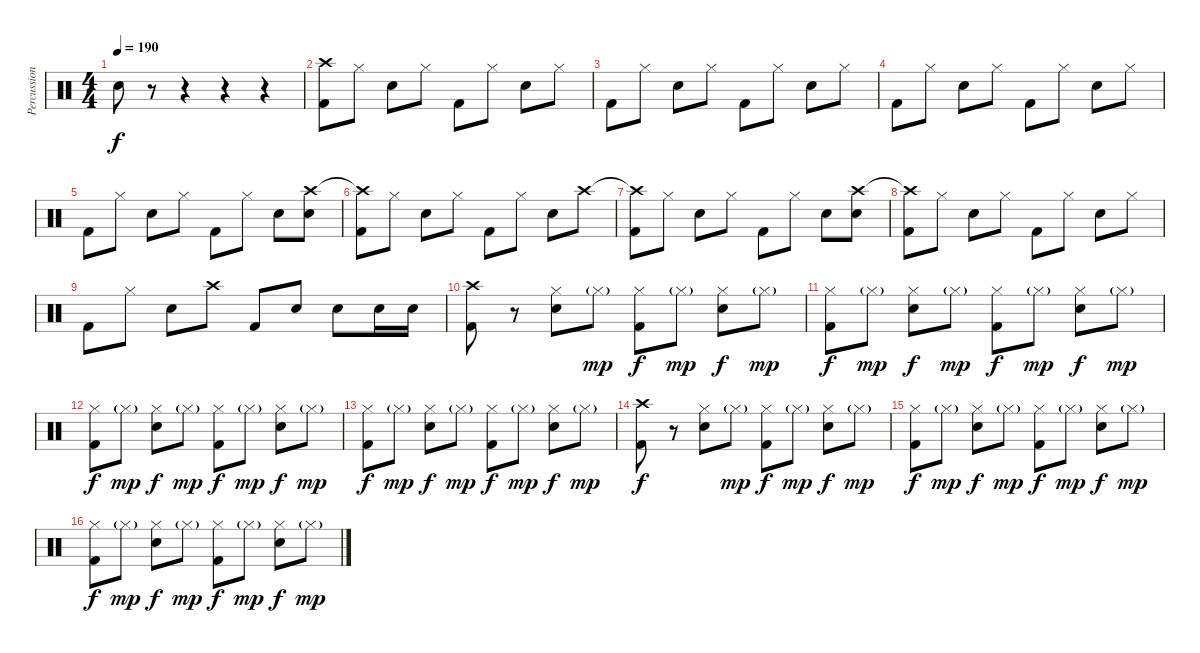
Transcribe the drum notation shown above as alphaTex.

\track ("Percussion" "Percussion") {instrument percussion}
\staff {score}
\articulation defaults
\ts (4 4)
\tempo 190
\clef neutral
\ks c "Electric Snare (hit)".8{dy f}
r.8 r.4 r.4 r.4 |
("Crash high (hit)" "Kick (hit) 2").8 "Hi-Hat (closed)".8 "Electric Snare (hit)".8 "Hi-Hat (closed)".8 "Kick (hit) 2".8 "Hi-Hat (closed)".8 "Electric Snare (hit)".8 "Hi-Hat (closed)".8 |
"Kick (hit) 2".8 "Hi-Hat (closed)".8 "Electric Snare (hit)".8 "Hi-Hat (closed)".8 "Kick (hit) 2".8 "Hi-Hat (closed)".8 "Electric Snare (hit)".8 "Hi-Hat (closed)".8 |
"Kick (hit) 2".8 "Hi-Hat (closed)".8 "Electric Snare (hit)".8 "Hi-Hat (closed)".8 "Kick (hit) 2".8 "Hi-Hat (closed)".8 "Electric Snare (hit)".8 "Hi-Hat (closed)".8 |
"Kick (hit) 2".8 "Hi-Hat (closed)".8 "Electric Snare (hit)".8 "Hi-Hat (closed)".8 "Kick (hit) 2".8 "Hi-Hat (closed)".8 "Electric Snare (hit)".8 ("Crash high (hit)" "Electric Snare (hit)").8 |
("Crash high (hit)"{t} "Kick (hit) 2").8 "Hi-Hat (closed)".8 "Electric Snare (hit)".8 "Hi-Hat (closed)".8 "Kick (hit) 2".8 "Hi-Hat (closed)".8 "Electric Snare (hit)".8 "Crash high (hit)".8 |
("Crash high (hit)"{t} "Kick (hit) 2").8 "Hi-Hat (closed)".8 "Electric Snare (hit)".8 "Hi-Hat (closed)".8 "Kick (hit) 2".8 "Hi-Hat (closed)".8 "Electric Snare (hit)".8 ("Crash high (hit)" "Electric Snare (hit)").8 |
("Crash high (hit)"{t} "Kick (hit) 2").8 "Hi-Hat (closed)".8 "Electric Snare (hit)".8 "Hi-Hat (closed)".8 "Kick (hit) 2".8 "Hi-Hat (closed)".8 "Electric Snare (hit)".8 "Hi-Hat (closed)".8 |
"Kick (hit) 2".8 "Hi-Hat (closed)".8 "Electric Snare (hit)".8 "Crash high (hit)".8 "Kick (hit) 2".8 "Electric Snare (hit)".8 "Electric Snare (hit)".8 "Electric Snare (hit)".16 "Electric Snare (hit)".16 |
("Crash high (hit)" "Kick (hit) 2").8 r.8 ("Hi-Hat (closed)" "Electric Snare (hit)").8 "Hi-Hat (closed)"{g}.8{dy mp} ("Hi-Hat (closed)" "Kick (hit) 2").8{dy f} "Hi-Hat (closed)"{g}.8{dy mp} ("Hi-Hat (closed)" "Electric Snare (hit)").8{dy f} "Hi-Hat (closed)"{g}.8{dy mp} |
("Hi-Hat (closed)" "Kick (hit) 2").8{dy f} "Hi-Hat (closed)"{g}.8{dy mp} ("Hi-Hat (closed)" "Electric Snare (hit)").8{dy f} "Hi-Hat (closed)"{g}.8{dy mp} ("Hi-Hat (closed)" "Kick (hit) 2").8{dy f} "Hi-Hat (closed)"{g}.8{dy mp} ("Hi-Hat (closed)" "Electric Snare (hit)").8{dy f} "Hi-Hat (closed)"{g}.8{dy mp} |
("Hi-Hat (closed)" "Kick (hit) 2").8{dy f} "Hi-Hat (closed)"{g}.8{dy mp} ("Hi-Hat (closed)" "Electric Snare (hit)").8{dy f} "Hi-Hat (closed)"{g}.8{dy mp} ("Hi-Hat (closed)" "Kick (hit) 2").8{dy f} "Hi-Hat (closed)"{g}.8{dy mp} ("Hi-Hat (closed)" "Electric Snare (hit)").8{dy f} "Hi-Hat (closed)"{g}.8{dy mp} |
("Hi-Hat (closed)" "Kick (hit) 2").8{dy f} "Hi-Hat (closed)"{g}.8{dy mp} ("Hi-Hat (closed)" "Electric Snare (hit)").8{dy f} "Hi-Hat (closed)"{g}.8{dy mp} ("Hi-Hat (closed)" "Kick (hit) 2").8{dy f} "Hi-Hat (closed)"{g}.8{dy mp} ("Hi-Hat (closed)" "Electric Snare (hit)").8{dy f} "Hi-Hat (closed)"{g}.8{dy mp} |
("Crash high (hit)" "Kick (hit) 2").8{dy f} r.8 ("Hi-Hat (closed)" "Electric Snare (hit)").8 "Hi-Hat (closed)"{g}.8{dy mp} ("Hi-Hat (closed)" "Kick (hit) 2").8{dy f} "Hi-Hat (closed)"{g}.8{dy mp} ("Hi-Hat (closed)" "Electric Snare (hit)").8{dy f} "Hi-Hat (closed)"{g}.8{dy mp} |
("Hi-Hat (closed)" "Kick (hit) 2").8{dy f} "Hi-Hat (closed)"{g}.8{dy mp} ("Hi-Hat (closed)" "Electric Snare (hit)").8{dy f} "Hi-Hat (closed)"{g}.8{dy mp} ("Hi-Hat (closed)" "Kick (hit) 2").8{dy f} "Hi-Hat (closed)"{g}.8{dy mp} ("Hi-Hat (closed)" "Electric Snare (hit)").8{dy f} "Hi-Hat (closed)"{g}.8{dy mp} |
("Hi-Hat (closed)" "Kick (hit) 2").8{dy f} "Hi-Hat (closed)"{g}.8{dy mp} ("Hi-Hat (closed)" "Electric Snare (hit)").8{dy f} "Hi-Hat (closed)"{g}.8{dy mp} ("Hi-Hat (closed)" "Kick (hit) 2").8{dy f} "Hi-Hat (closed)"{g}.8{dy mp} ("Hi-Hat (closed)" "Electric Snare (hit)").8{dy f} "Hi-Hat (closed)"{g}.8{dy mp}
